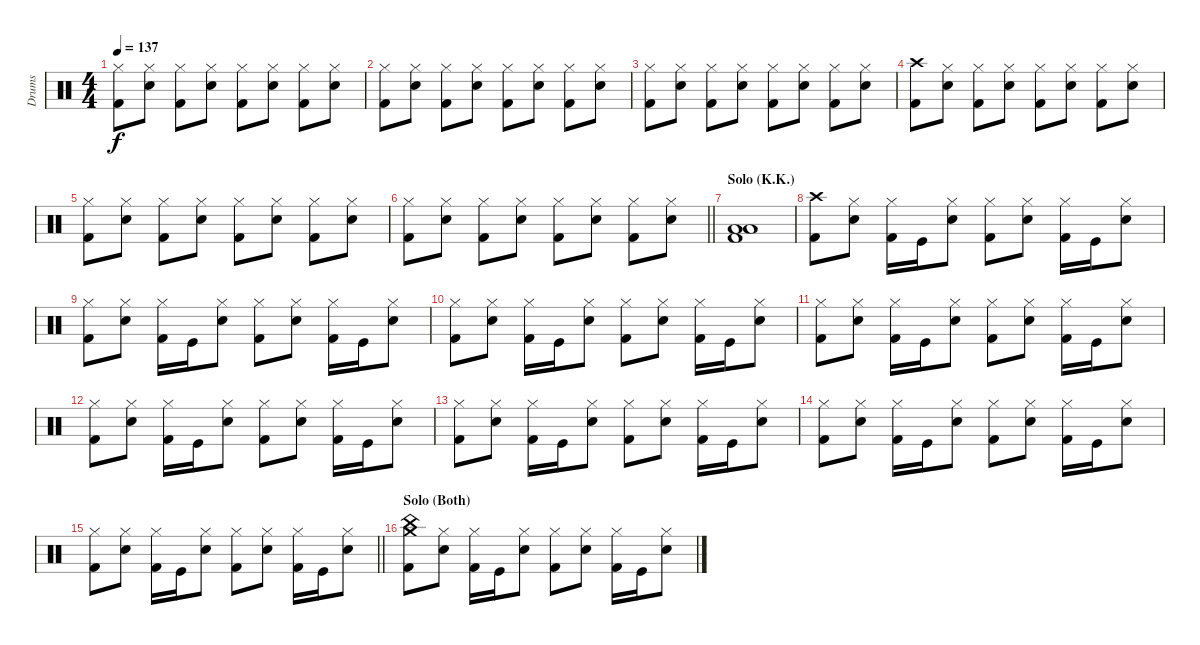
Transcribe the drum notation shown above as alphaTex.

\track ("Drums" "Drums") {instrument percussion}
\staff {score}
\articulation defaults
\ts (4 4)
\tempo 137
\clef neutral
\ks c
("Hi-Hat (closed)" "Kick (hit) 2").8{dy f} ("Hi-Hat (closed)" "Snare (hit) 2").8 ("Hi-Hat (closed)" "Kick (hit) 2").8 ("Hi-Hat (closed)" "Snare (hit) 2").8 ("Hi-Hat (closed)" "Kick (hit) 2").8 ("Hi-Hat (closed)" "Snare (hit) 2").8 ("Hi-Hat (closed)" "Kick (hit) 2").8 ("Hi-Hat (closed)" "Snare (hit) 2").8 |
("Hi-Hat (closed)" "Kick (hit) 2").8 ("Hi-Hat (closed)" "Snare (hit) 2").8 ("Hi-Hat (closed)" "Kick (hit) 2").8 ("Hi-Hat (closed)" "Snare (hit) 2").8 ("Hi-Hat (closed)" "Kick (hit) 2").8 ("Hi-Hat (closed)" "Snare (hit) 2").8 ("Hi-Hat (closed)" "Kick (hit) 2").8 ("Hi-Hat (closed)" "Snare (hit) 2").8 |
("Hi-Hat (closed)" "Kick (hit) 2").8 ("Hi-Hat (closed)" "Snare (hit) 2").8 ("Hi-Hat (closed)" "Kick (hit) 2").8 ("Hi-Hat (closed)" "Snare (hit) 2").8 ("Hi-Hat (closed)" "Kick (hit) 2").8 ("Hi-Hat (closed)" "Snare (hit) 2").8 ("Hi-Hat (closed)" "Kick (hit) 2").8 ("Hi-Hat (closed)" "Snare (hit) 2").8 |
("Crash high (hit)" "Kick (hit) 2").8 ("Hi-Hat (closed)" "Snare (hit) 2").8 ("Hi-Hat (closed)" "Kick (hit) 2").8 ("Hi-Hat (closed)" "Snare (hit) 2").8 ("Hi-Hat (closed)" "Kick (hit) 2").8 ("Hi-Hat (closed)" "Snare (hit) 2").8 ("Hi-Hat (closed)" "Kick (hit) 2").8 ("Hi-Hat (closed)" "Snare (hit) 2").8 |
("Hi-Hat (closed)" "Kick (hit) 2").8 ("Hi-Hat (closed)" "Snare (hit) 2").8 ("Hi-Hat (closed)" "Kick (hit) 2").8 ("Hi-Hat (closed)" "Snare (hit) 2").8 ("Hi-Hat (closed)" "Kick (hit) 2").8 ("Hi-Hat (closed)" "Snare (hit) 2").8 ("Hi-Hat (closed)" "Kick (hit) 2").8 ("Hi-Hat (closed)" "Snare (hit) 2").8 |
\barLineRight lightlight
("Hi-Hat (closed)" "Kick (hit) 2").8 ("Hi-Hat (closed)" "Snare (hit) 2").8 ("Hi-Hat (closed)" "Kick (hit) 2").8 ("Hi-Hat (closed)" "Snare (hit) 2").8 ("Hi-Hat (closed)" "Kick (hit) 2").8 ("Hi-Hat (closed)" "Snare (hit) 2").8 ("Hi-Hat (closed)" "Kick (hit) 2").8 ("Hi-Hat (closed)" "Snare (hit) 2").8 |
\section ("" "Solo (K.K.)")
("Low Floor Tom (hit)" "Low Floor Tom (hit)" "Kick (hit) 2").1 |
("Crash high (hit)" "Kick (hit) 2").8 ("Hi-Hat (closed)" "Snare (hit) 2").8 ("Hi-Hat (closed)" "Kick (hit) 2").16 "Kick (hit)".16 ("Hi-Hat (closed)" "Snare (hit) 2").8 ("Hi-Hat (closed)" "Kick (hit) 2").8 ("Hi-Hat (closed)" "Snare (hit) 2").8 ("Hi-Hat (closed)" "Kick (hit) 2").16 "Kick (hit)".16 ("Hi-Hat (closed)" "Snare (hit) 2").8 |
("Hi-Hat (closed)" "Kick (hit) 2").8 ("Hi-Hat (closed)" "Snare (hit) 2").8 ("Hi-Hat (closed)" "Kick (hit) 2").16 "Kick (hit)".16 ("Hi-Hat (closed)" "Snare (hit) 2").8 ("Hi-Hat (closed)" "Kick (hit) 2").8 ("Hi-Hat (closed)" "Snare (hit) 2").8 ("Hi-Hat (closed)" "Kick (hit) 2").16 "Kick (hit)".16 ("Hi-Hat (closed)" "Snare (hit) 2").8 |
("Hi-Hat (closed)" "Kick (hit) 2").8 ("Hi-Hat (closed)" "Snare (hit) 2").8 ("Hi-Hat (closed)" "Kick (hit) 2").16 "Kick (hit)".16 ("Hi-Hat (closed)" "Snare (hit) 2").8 ("Hi-Hat (closed)" "Kick (hit) 2").8 ("Hi-Hat (closed)" "Snare (hit) 2").8 ("Hi-Hat (closed)" "Kick (hit) 2").16 "Kick (hit)".16 ("Hi-Hat (closed)" "Snare (hit) 2").8 |
("Hi-Hat (closed)" "Kick (hit) 2").8 ("Hi-Hat (closed)" "Snare (hit) 2").8 ("Hi-Hat (closed)" "Kick (hit) 2").16 "Kick (hit)".16 ("Hi-Hat (closed)" "Snare (hit) 2").8 ("Hi-Hat (closed)" "Kick (hit) 2").8 ("Hi-Hat (closed)" "Snare (hit) 2").8 ("Hi-Hat (closed)" "Kick (hit) 2").16 "Kick (hit)".16 ("Hi-Hat (closed)" "Snare (hit) 2").8 |
("Hi-Hat (closed)" "Kick (hit) 2").8 ("Hi-Hat (closed)" "Snare (hit) 2").8 ("Hi-Hat (closed)" "Kick (hit) 2").16 "Kick (hit)".16 ("Hi-Hat (closed)" "Snare (hit) 2").8 ("Hi-Hat (closed)" "Kick (hit) 2").8 ("Hi-Hat (closed)" "Snare (hit) 2").8 ("Hi-Hat (closed)" "Kick (hit) 2").16 "Kick (hit)".16 ("Hi-Hat (closed)" "Snare (hit) 2").8 |
("Hi-Hat (closed)" "Kick (hit) 2").8 ("Hi-Hat (closed)" "Snare (hit) 2").8 ("Hi-Hat (closed)" "Kick (hit) 2").16 "Kick (hit)".16 ("Hi-Hat (closed)" "Snare (hit) 2").8 ("Hi-Hat (closed)" "Kick (hit) 2").8 ("Hi-Hat (closed)" "Snare (hit) 2").8 ("Hi-Hat (closed)" "Kick (hit) 2").16 "Kick (hit)".16 ("Hi-Hat (closed)" "Snare (hit) 2").8 |
("Hi-Hat (closed)" "Kick (hit) 2").8 ("Hi-Hat (closed)" "Snare (hit) 2").8 ("Hi-Hat (closed)" "Kick (hit) 2").16 "Kick (hit)".16 ("Hi-Hat (closed)" "Snare (hit) 2").8 ("Hi-Hat (closed)" "Kick (hit) 2").8 ("Hi-Hat (closed)" "Snare (hit) 2").8 ("Hi-Hat (closed)" "Kick (hit) 2").16 "Kick (hit)".16 ("Hi-Hat (closed)" "Snare (hit) 2").8 |
\barLineRight lightlight
("Hi-Hat (closed)" "Kick (hit) 2").8 ("Hi-Hat (closed)" "Snare (hit) 2").8 ("Hi-Hat (closed)" "Kick (hit) 2").16 "Kick (hit)".16 ("Hi-Hat (closed)" "Snare (hit) 2").8 ("Hi-Hat (closed)" "Kick (hit) 2").8 ("Hi-Hat (closed)" "Snare (hit) 2").8 ("Hi-Hat (closed)" "Kick (hit) 2").16 "Kick (hit)".16 ("Hi-Hat (closed)" "Snare (hit) 2").8 |
\section ("" "Solo (Both)")
("Crash medium (hit)" "China (hit)" "Kick (hit) 2").8 ("Hi-Hat (closed)" "Snare (hit) 2").8 ("Hi-Hat (closed)" "Kick (hit) 2").16 "Kick (hit)".16 ("Hi-Hat (closed)" "Snare (hit) 2").8 ("Hi-Hat (closed)" "Kick (hit) 2").8 ("Hi-Hat (closed)" "Snare (hit) 2").8 ("Hi-Hat (closed)" "Kick (hit) 2").16 "Kick (hit)".16 ("Hi-Hat (closed)" "Snare (hit) 2").8
